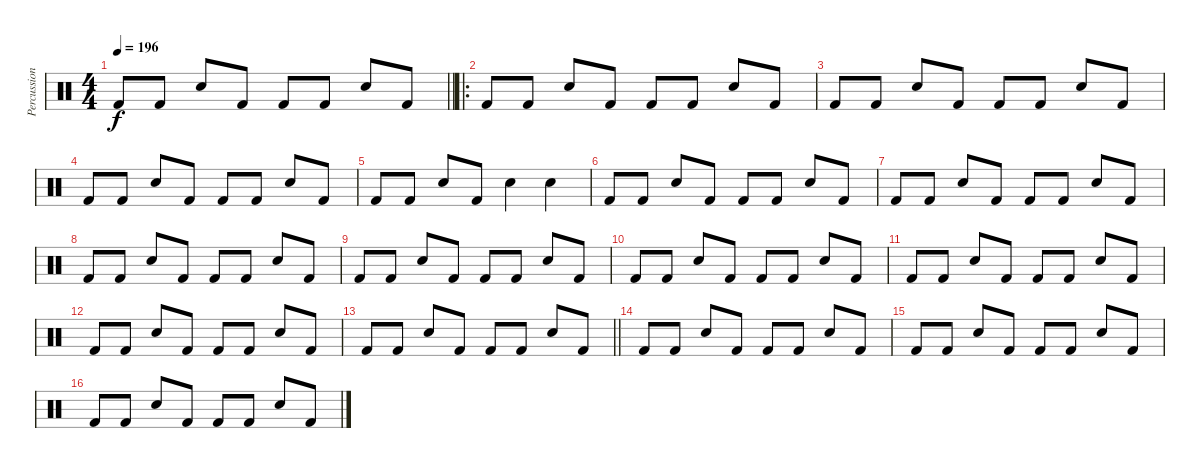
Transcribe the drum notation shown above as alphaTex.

\track ("Percussion" "Percussion") {instrument percussion}
\staff {score}
\articulation defaults
\ts (4 4)
\tempo 196
\clef neutral
\barLineRight lightlight
\ks c "Kick (hit) 2".8{dy f} "Kick (hit) 2".8 "Electric Snare (hit)".8 "Kick (hit) 2".8 "Kick (hit) 2".8 "Kick (hit) 2".8 "Electric Snare (hit)".8 "Kick (hit) 2".8
|
\ro "Kick (hit) 2".8 "Kick (hit) 2".8 "Electric Snare (hit)".8 "Kick (hit) 2".8 "Kick (hit) 2".8 "Kick (hit) 2".8 "Electric Snare (hit)".8 "Kick (hit) 2".8
|
"Kick (hit) 2".8 "Kick (hit) 2".8 "Electric Snare (hit)".8 "Kick (hit) 2".8 "Kick (hit) 2".8 "Kick (hit) 2".8 "Electric Snare (hit)".8 "Kick (hit) 2".8 |
"Kick (hit) 2".8 "Kick (hit) 2".8 "Electric Snare (hit)".8 "Kick (hit) 2".8 "Kick (hit) 2".8 "Kick (hit) 2".8 "Electric Snare (hit)".8 "Kick (hit) 2".8 |
"Kick (hit) 2".8 "Kick (hit) 2".8 "Electric Snare (hit)".8 "Kick (hit) 2".8 "Electric Snare (hit)".4 "Electric Snare (hit)".4 |
"Kick (hit) 2".8 "Kick (hit) 2".8 "Electric Snare (hit)".8 "Kick (hit) 2".8 "Kick (hit) 2".8 "Kick (hit) 2".8 "Electric Snare (hit)".8 "Kick (hit) 2".8 |
"Kick (hit) 2".8 "Kick (hit) 2".8 "Electric Snare (hit)".8 "Kick (hit) 2".8 "Kick (hit) 2".8 "Kick (hit) 2".8 "Electric Snare (hit)".8 "Kick (hit) 2".8 |
"Kick (hit) 2".8 "Kick (hit) 2".8 "Electric Snare (hit)".8 "Kick (hit) 2".8 "Kick (hit) 2".8 "Kick (hit) 2".8 "Electric Snare (hit)".8 "Kick (hit) 2".8 |
"Kick (hit) 2".8 "Kick (hit) 2".8 "Electric Snare (hit)".8 "Kick (hit) 2".8 "Kick (hit) 2".8 "Kick (hit) 2".8 "Electric Snare (hit)".8 "Kick (hit) 2".8 |
"Kick (hit) 2".8 "Kick (hit) 2".8 "Electric Snare (hit)".8 "Kick (hit) 2".8 "Kick (hit) 2".8 "Kick (hit) 2".8 "Electric Snare (hit)".8 "Kick (hit) 2".8 |
"Kick (hit) 2".8 "Kick (hit) 2".8 "Electric Snare (hit)".8 "Kick (hit) 2".8 "Kick (hit) 2".8 "Kick (hit) 2".8 "Electric Snare (hit)".8 "Kick (hit) 2".8 |
"Kick (hit) 2".8 "Kick (hit) 2".8 "Electric Snare (hit)".8 "Kick (hit) 2".8 "Kick (hit) 2".8 "Kick (hit) 2".8 "Electric Snare (hit)".8 "Kick (hit) 2".8 |
\barLineRight lightlight "Kick (hit) 2".8 "Kick (hit) 2".8 "Electric Snare (hit)".8 "Kick (hit) 2".8 "Kick (hit) 2".8 "Kick (hit) 2".8 "Electric Snare (hit)".8 "Kick (hit) 2".8
|
"Kick (hit) 2".8 "Kick (hit) 2".8 "Electric Snare (hit)".8 "Kick (hit) 2".8 "Kick (hit) 2".8 "Kick (hit) 2".8 "Electric Snare (hit)".8 "Kick (hit) 2".8 |
"Kick (hit) 2".8 "Kick (hit) 2".8 "Electric Snare (hit)".8 "Kick (hit) 2".8 "Kick (hit) 2".8 "Kick (hit) 2".8 "Electric Snare (hit)".8 "Kick (hit) 2".8 |
"Kick (hit) 2".8 "Kick (hit) 2".8 "Electric Snare (hit)".8 "Kick (hit) 2".8 "Kick (hit) 2".8 "Kick (hit) 2".8 "Electric Snare (hit)".8 "Kick (hit) 2".8
